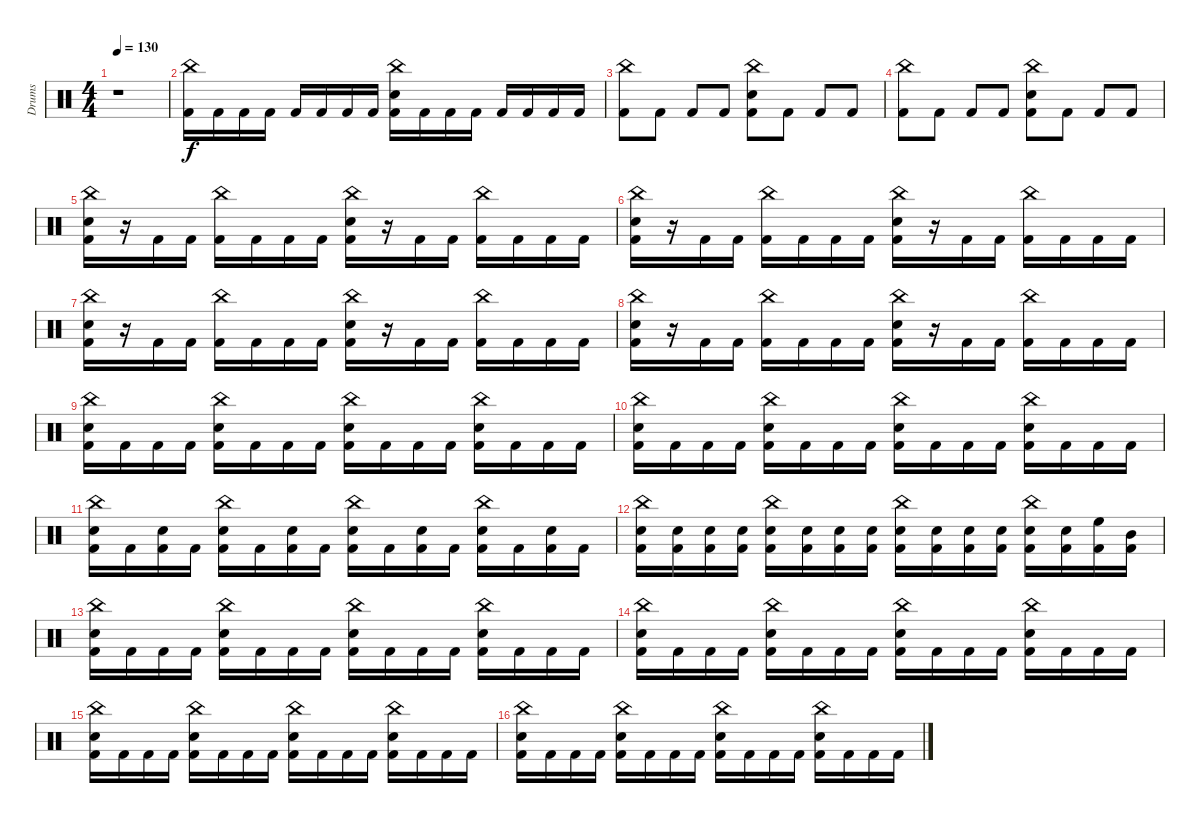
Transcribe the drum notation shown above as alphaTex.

\track ("Drums" "Drums") {instrument percussion}
\staff {score}
\articulation defaults
\ts (4 4)
\tempo 130
\clef neutral
\ks c
r.1{dy f} |
("China (hit)" "Kick (hit) 2").16 "Kick (hit) 2".16 "Kick (hit) 2".16 "Kick (hit) 2".16 "Kick (hit) 2".16 "Kick (hit) 2".16 "Kick (hit) 2".16 "Kick (hit) 2".16 ("China (hit)" "Snare (hit) 2" "Kick (hit) 2").16 "Kick (hit) 2".16 "Kick (hit) 2".16 "Kick (hit) 2".16 "Kick (hit) 2".16 "Kick (hit) 2".16 "Kick (hit) 2".16 "Kick (hit) 2".16 |
("China (hit)" "Kick (hit) 2").8 "Kick (hit) 2".8 "Kick (hit) 2".8 "Kick (hit) 2".8 ("China (hit)" "Snare (hit) 2" "Kick (hit) 2").8 "Kick (hit) 2".8 "Kick (hit) 2".8 "Kick (hit) 2".8 |
("China (hit)" "Kick (hit) 2").8 "Kick (hit) 2".8 "Kick (hit) 2".8 "Kick (hit) 2".8 ("China (hit)" "Snare (hit) 2" "Kick (hit) 2").8 "Kick (hit) 2".8 "Kick (hit) 2".8 "Kick (hit) 2".8 |
("China (hit)" "Snare (hit) 2" "Kick (hit) 2").16 r.16 "Kick (hit) 2".16 "Kick (hit) 2".16 ("China (hit)" "Kick (hit) 2").16 "Kick (hit) 2".16 "Kick (hit) 2".16 "Kick (hit) 2".16 ("China (hit)" "Snare (hit) 2" "Kick (hit) 2").16 r.16 "Kick (hit) 2".16 "Kick (hit) 2".16 ("China (hit)" "Kick (hit) 2").16 "Kick (hit) 2".16 "Kick (hit) 2".16 "Kick (hit) 2".16 |
("China (hit)" "Snare (hit) 2" "Kick (hit) 2").16 r.16 "Kick (hit) 2".16 "Kick (hit) 2".16 ("China (hit)" "Kick (hit) 2").16 "Kick (hit) 2".16 "Kick (hit) 2".16 "Kick (hit) 2".16 ("China (hit)" "Snare (hit) 2" "Kick (hit) 2").16 r.16 "Kick (hit) 2".16 "Kick (hit) 2".16 ("China (hit)" "Kick (hit) 2").16 "Kick (hit) 2".16 "Kick (hit) 2".16 "Kick (hit) 2".16 |
("China (hit)" "Snare (hit) 2" "Kick (hit) 2").16 r.16 "Kick (hit) 2".16 "Kick (hit) 2".16 ("China (hit)" "Kick (hit) 2").16 "Kick (hit) 2".16 "Kick (hit) 2".16 "Kick (hit) 2".16 ("China (hit)" "Snare (hit) 2" "Kick (hit) 2").16 r.16 "Kick (hit) 2".16 "Kick (hit) 2".16 ("China (hit)" "Kick (hit) 2").16 "Kick (hit) 2".16 "Kick (hit) 2".16 "Kick (hit) 2".16 |
("China (hit)" "Snare (hit) 2" "Kick (hit) 2").16 r.16 "Kick (hit) 2".16 "Kick (hit) 2".16 ("China (hit)" "Kick (hit) 2").16 "Kick (hit) 2".16 "Kick (hit) 2".16 "Kick (hit) 2".16 ("China (hit)" "Snare (hit) 2" "Kick (hit) 2").16 r.16 "Kick (hit) 2".16 "Kick (hit) 2".16 ("China (hit)" "Kick (hit) 2").16 "Kick (hit) 2".16 "Kick (hit) 2".16 "Kick (hit) 2".16 |
("China (hit)" "Snare (hit) 2" "Kick (hit) 2").16 "Kick (hit) 2".16 "Kick (hit) 2".16 "Kick (hit) 2".16 ("China (hit)" "Snare (hit) 2" "Kick (hit) 2").16 "Kick (hit) 2".16 "Kick (hit) 2".16 "Kick (hit) 2".16 ("China (hit)" "Snare (hit) 2" "Kick (hit) 2").16 "Kick (hit) 2".16 "Kick (hit) 2".16 "Kick (hit) 2".16 ("China (hit)" "Snare (hit) 2" "Kick (hit) 2").16 "Kick (hit) 2".16 "Kick (hit) 2".16 "Kick (hit) 2".16 |
("China (hit)" "Snare (hit) 2" "Kick (hit) 2").16 "Kick (hit) 2".16 "Kick (hit) 2".16 "Kick (hit) 2".16 ("China (hit)" "Snare (hit) 2" "Kick (hit) 2").16 "Kick (hit) 2".16 "Kick (hit) 2".16 "Kick (hit) 2".16 ("China (hit)" "Snare (hit) 2" "Kick (hit) 2").16 "Kick (hit) 2".16 "Kick (hit) 2".16 "Kick (hit) 2".16 ("China (hit)" "Snare (hit) 2" "Kick (hit) 2").16 "Kick (hit) 2".16 "Kick (hit) 2".16 "Kick (hit) 2".16 |
("China (hit)" "Snare (hit) 2" "Kick (hit) 2").16 "Kick (hit) 2".16 ("Snare (hit) 2" "Kick (hit) 2").16 "Kick (hit) 2".16 ("China (hit)" "Snare (hit) 2" "Kick (hit) 2").16 "Kick (hit) 2".16 ("Snare (hit) 2" "Kick (hit) 2").16 "Kick (hit) 2".16 ("China (hit)" "Snare (hit) 2" "Kick (hit) 2").16 "Kick (hit) 2".16 ("Snare (hit) 2" "Kick (hit) 2").16 "Kick (hit) 2".16 ("China (hit)" "Snare (hit) 2" "Kick (hit) 2").16 "Kick (hit) 2".16 ("Snare (hit) 2" "Kick (hit) 2").16 "Kick (hit) 2".16 |
("China (hit)" "Snare (hit) 2" "Kick (hit) 2").16 ("Snare (hit) 2" "Kick (hit) 2").16 ("Snare (hit) 2" "Kick (hit) 2").16 ("Snare (hit) 2" "Kick (hit) 2").16 ("China (hit)" "Snare (hit) 2" "Kick (hit) 2").16 ("Snare (hit) 2" "Kick (hit) 2").16 ("Snare (hit) 2" "Kick (hit) 2").16 ("Snare (hit) 2" "Kick (hit) 2").16 ("China (hit)" "Snare (hit) 2" "Kick (hit) 2").16 ("Snare (hit) 2" "Kick (hit) 2").16 ("Snare (hit) 2" "Kick (hit) 2").16 ("Snare (hit) 2" "Kick (hit) 2").16 ("China (hit)" "Snare (hit) 2" "Kick (hit) 2").16 ("Snare (hit) 2" "Kick (hit) 2").16 ("High Floor Tom (hit)" "Kick (hit) 2").16 ("Mid Tom (hit)" "Kick (hit) 2").16 |
("China (hit)" "Snare (hit) 2" "Kick (hit) 2").16 "Kick (hit) 2".16 "Kick (hit) 2".16 "Kick (hit) 2".16 ("China (hit)" "Snare (hit) 2" "Kick (hit) 2").16 "Kick (hit) 2".16 "Kick (hit) 2".16 "Kick (hit) 2".16 ("China (hit)" "Snare (hit) 2" "Kick (hit) 2").16 "Kick (hit) 2".16 "Kick (hit) 2".16 "Kick (hit) 2".16 ("China (hit)" "Snare (hit) 2" "Kick (hit) 2").16 "Kick (hit) 2".16 "Kick (hit) 2".16 "Kick (hit) 2".16 |
("China (hit)" "Snare (hit) 2" "Kick (hit) 2").16 "Kick (hit) 2".16 "Kick (hit) 2".16 "Kick (hit) 2".16 ("China (hit)" "Snare (hit) 2" "Kick (hit) 2").16 "Kick (hit) 2".16 "Kick (hit) 2".16 "Kick (hit) 2".16 ("China (hit)" "Snare (hit) 2" "Kick (hit) 2").16 "Kick (hit) 2".16 "Kick (hit) 2".16 "Kick (hit) 2".16 ("China (hit)" "Snare (hit) 2" "Kick (hit) 2").16 "Kick (hit) 2".16 "Kick (hit) 2".16 "Kick (hit) 2".16 |
("China (hit)" "Snare (hit) 2" "Kick (hit) 2").16 "Kick (hit) 2".16 "Kick (hit) 2".16 "Kick (hit) 2".16 ("China (hit)" "Snare (hit) 2" "Kick (hit) 2").16 "Kick (hit) 2".16 "Kick (hit) 2".16 "Kick (hit) 2".16 ("China (hit)" "Snare (hit) 2" "Kick (hit) 2").16 "Kick (hit) 2".16 "Kick (hit) 2".16 "Kick (hit) 2".16 ("China (hit)" "Snare (hit) 2" "Kick (hit) 2").16 "Kick (hit) 2".16 "Kick (hit) 2".16 "Kick (hit) 2".16 |
("China (hit)" "Snare (hit) 2" "Kick (hit) 2").16 "Kick (hit) 2".16 "Kick (hit) 2".16 "Kick (hit) 2".16 ("China (hit)" "Snare (hit) 2" "Kick (hit) 2").16 "Kick (hit) 2".16 "Kick (hit) 2".16 "Kick (hit) 2".16 ("China (hit)" "Snare (hit) 2" "Kick (hit) 2").16 "Kick (hit) 2".16 "Kick (hit) 2".16 "Kick (hit) 2".16 ("China (hit)" "Snare (hit) 2" "Kick (hit) 2").16 "Kick (hit) 2".16 "Kick (hit) 2".16 "Kick (hit) 2".16
